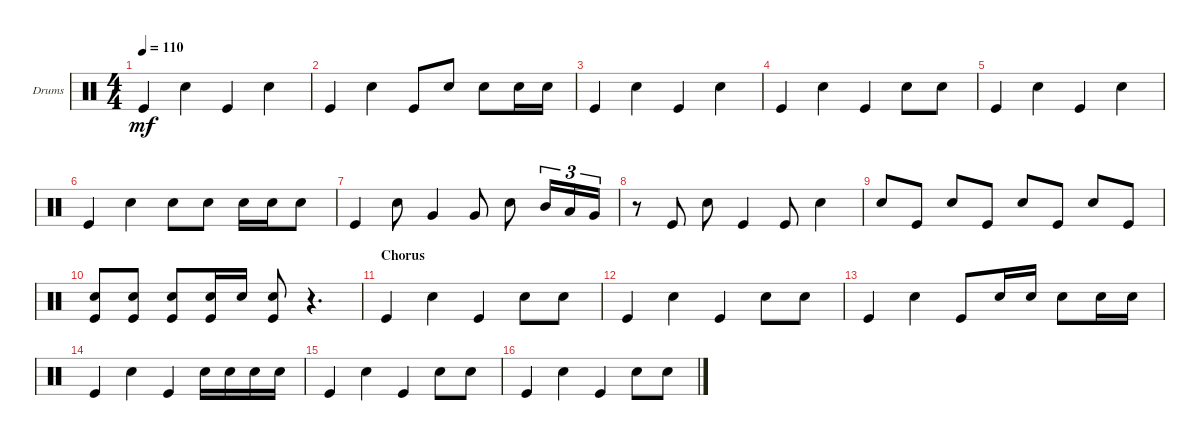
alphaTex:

\defaultSystemsLayout 4
\bracketExtendMode groupsimilarinstruments
\firstSystemTrackNameOrientation horizontal
\otherSystemsTrackNameOrientation horizontal
\track ("Drumkit" "Drums") {instrument percussion}
\staff {score}
\articulation defaults
\ts (4 4)
\tempo 110
\clef neutral
\ks c "Kick (hit)".4{dy mf} "Snare (hit) 2".4 "Kick (hit)".4 "Snare (hit) 2".4
|
"Kick (hit)".4 "Snare (hit) 2".4 "Kick (hit)".8 "Snare (hit) 2".8 "Snare (hit) 2".8 "Snare (hit) 2".16 "Snare (hit) 2".16 |
"Kick (hit)".4 "Snare (hit) 2".4 "Kick (hit)".4 "Snare (hit) 2".4 |
"Kick (hit)".4 "Snare (hit) 2".4 "Kick (hit)".4 "Snare (hit) 2".8 "Snare (hit) 2".8 |
"Kick (hit)".4 "Snare (hit) 2".4 "Kick (hit)".4 "Snare (hit) 2".4 |
"Kick (hit)".4 "Snare (hit) 2".4 "Snare (hit) 2".8 "Snare (hit) 2".8 "Snare (hit) 2".16 "Snare (hit) 2".16 "Snare (hit) 2".8 |
"Kick (hit)".4 "Snare (hit) 2".8 "Very Low Tom (hit)".4 "Very Low Tom (hit)".8 "Snare (hit) 2".8 "Mid Tom (hit)".16{tu (3 2)} "Low Tom (hit)".16{tu (3 2)} "Very Low Tom (hit)".16{tu (3 2)} |
r.8 "Kick (hit)".8 "Snare (hit) 2".8 "Kick (hit)".4 "Kick (hit)".8 "Snare (hit) 2".4 |
"Snare (hit) 2".8 "Kick (hit)".8 "Snare (hit) 2".8 "Kick (hit)".8 "Snare (hit) 2".8 "Kick (hit)".8 "Snare (hit) 2".8 "Kick (hit)".8 |
("Snare (hit) 2" "Kick (hit)").8 ("Snare (hit) 2" "Kick (hit)").8 ("Snare (hit) 2" "Kick (hit)").8 ("Snare (hit) 2" "Kick (hit)").16 "Snare (hit) 2".16 ("Snare (hit) 2" "Kick (hit)").8 r.4{d} |
\section ("" "Chorus")
"Kick (hit)".4 "Snare (hit) 2".4 "Kick (hit)".4 "Snare (hit) 2".8 "Snare (hit) 2".8 |
"Kick (hit)".4 "Snare (hit) 2".4 "Kick (hit)".4 "Snare (hit) 2".8 "Snare (hit) 2".8 |
"Kick (hit)".4 "Snare (hit) 2".4 "Kick (hit)".8 "Snare (hit) 2".16 "Snare (hit) 2".16 "Snare (hit) 2".8 "Snare (hit) 2".16 "Snare (hit) 2".16 |
"Kick (hit)".4 "Snare (hit) 2".4 "Kick (hit)".4 "Snare (hit) 2".16 "Snare (hit) 2".16 "Snare (hit) 2".16 "Snare (hit) 2".16 |
"Kick (hit)".4 "Snare (hit) 2".4 "Kick (hit)".4 "Snare (hit) 2".8 "Snare (hit) 2".8 |
"Kick (hit)".4 "Snare (hit) 2".4 "Kick (hit)".4 "Snare (hit) 2".8 "Snare (hit) 2".8
